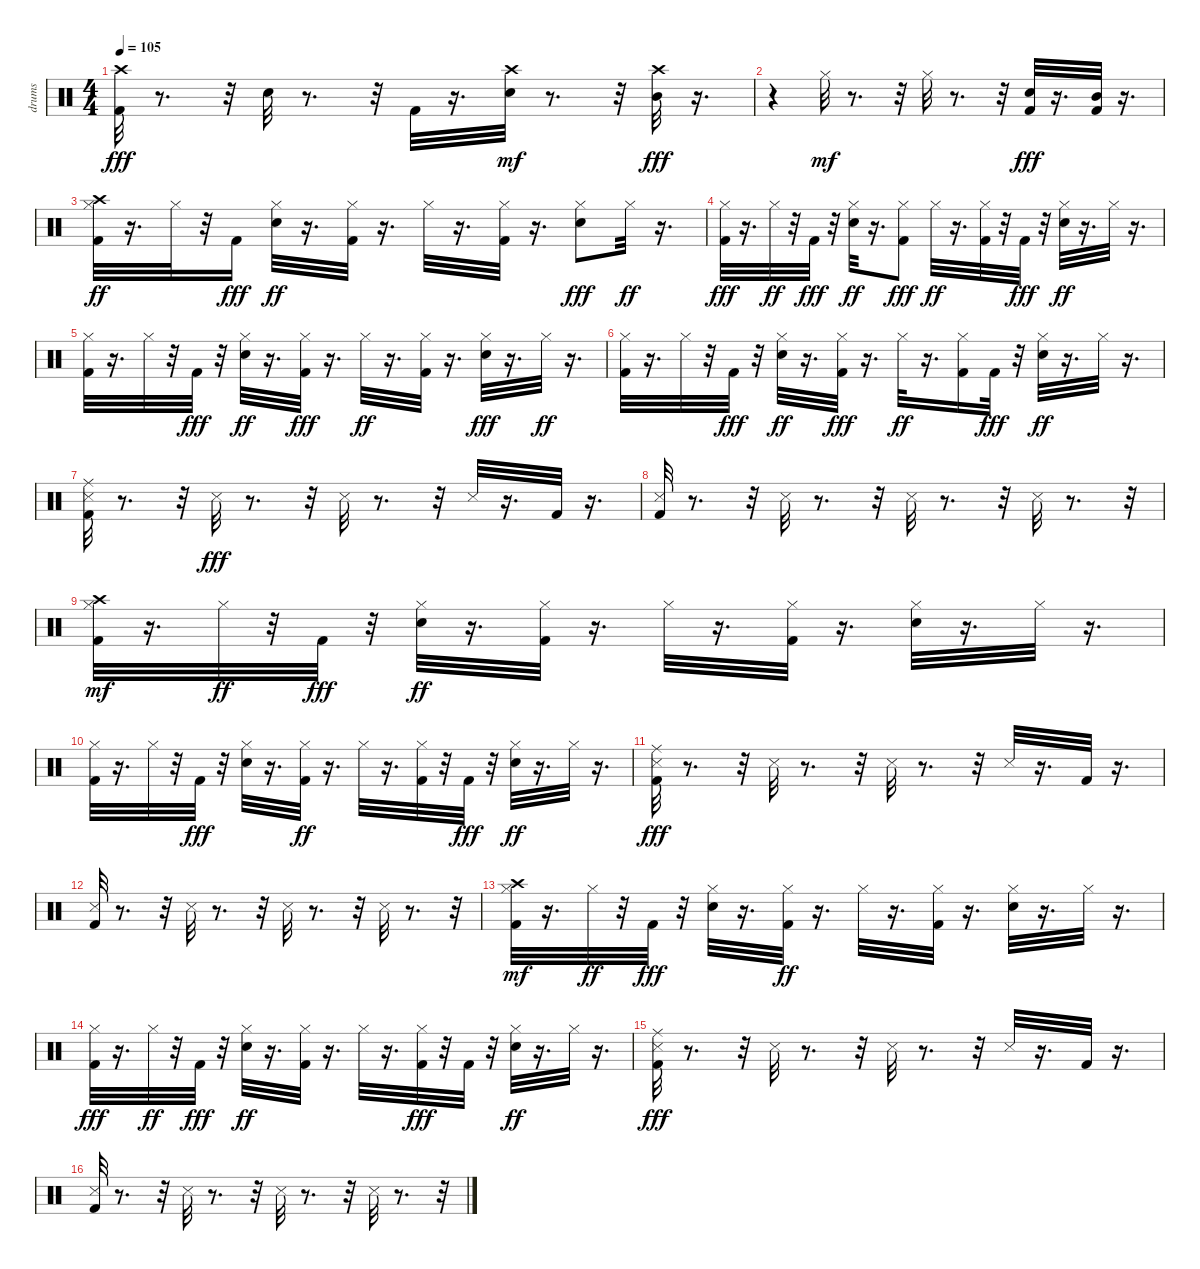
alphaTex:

\track ("drums" "drums") {instrument percussion}
\staff {score}
\articulation defaults
\ts (4 4)
\tempo 105
\clef neutral
\ks c
("Crash high (hit)" "Kick (hit) 2").32{dy fff} r.8{d} r.32 "Electric Snare (hit)".32 r.8{d} r.32 "Kick (hit) 2".32 r.16{d} ("Electric Snare (hit)" "Crash high (hit)").32{dy mf} r.8{d} r.32 ("Crash high (hit)" "Mid Tom (hit)").32{dy fff} r.16{d} |
r.4 "Hi-Hat (closed)".32{dy mf} r.8{d} r.32 "Hi-Hat (closed)".32 r.8{d} r.32 ("Electric Snare (hit)" "Kick (hit) 2").32{dy fff} r.16{d} ("Mid Tom (hit)" "Kick (hit) 2").32 r.16{d} |
("Kick (hit) 2" "Crash high (hit)" "Hi-Hat (closed)").32{dy ff} r.16{d} "Hi-Hat (closed)".32 r.32 "Kick (hit) 2".16{dy fff} ("Electric Snare (hit)" "Hi-Hat (closed)").32{dy ff} r.16{d} ("Kick (hit) 2" "Hi-Hat (closed)").32 r.16{d} "Hi-Hat (closed)".32 r.16{d} ("Kick (hit) 2" "Hi-Hat (closed)").32 r.16{d} ("Hi-Hat (closed)" "Electric Snare (hit)").8{dy fff} "Hi-Hat (closed)".32{dy ff} r.16{d} |
("Hi-Hat (closed)" "Kick (hit) 2").32{dy fff} r.16{d} "Hi-Hat (closed)".32{dy ff} r.32 "Kick (hit) 2".32{dy fff} r.32 ("Electric Snare (hit)" "Hi-Hat (closed)").32{dy ff} r.16{d} ("Hi-Hat (closed)" "Kick (hit) 2").8{dy fff} "Hi-Hat (closed)".32{dy ff} r.16{d} ("Kick (hit) 2" "Hi-Hat (closed)").32 r.32 "Kick (hit) 2".32{dy fff} r.32 ("Electric Snare (hit)" "Hi-Hat (closed)").32{dy ff} r.16{d} "Hi-Hat (closed)".32 r.16{d} |
("Kick (hit) 2" "Hi-Hat (closed)").32 r.16{d} "Hi-Hat (closed)".32 r.32 "Kick (hit) 2".32{dy fff} r.32 ("Electric Snare (hit)" "Hi-Hat (closed)").32{dy ff} r.16{d} ("Hi-Hat (closed)" "Kick (hit) 2").32{dy fff} r.16{d} "Hi-Hat (closed)".32{dy ff} r.16{d} ("Kick (hit) 2" "Hi-Hat (closed)").32 r.16{d} ("Hi-Hat (closed)" "Electric Snare (hit)").32{dy fff} r.16{d} "Hi-Hat (closed)".32{dy ff} r.16{d} |
("Kick (hit) 2" "Hi-Hat (closed)").32 r.16{d} "Hi-Hat (closed)".32 r.32 "Kick (hit) 2".32{dy fff} r.32 ("Electric Snare (hit)" "Hi-Hat (closed)").32{dy ff} r.16{d} ("Hi-Hat (closed)" "Kick (hit) 2").32{dy fff} r.16{d} "Hi-Hat (closed)".32{dy ff} r.16{d} ("Kick (hit) 2" "Hi-Hat (closed)").16 "Kick (hit) 2".32{dy fff} r.32 ("Electric Snare (hit)" "Hi-Hat (closed)").32{dy ff} r.16{d} "Hi-Hat (closed)".32 r.16{d} |
("Kick (hit) 2" "Snare (side stick) 3" "Ride (middle)").32 r.8{d} r.32 "Snare (side stick) 3".32{dy fff} r.8{d} r.32 "Snare (side stick) 3".32 r.8{d} r.32 "Snare (side stick) 3".32 r.16{d} "Kick (hit) 2".32 r.16{d} |
("Kick (hit) 2" "Snare (side stick) 3").32 r.8{d} r.32 "Snare (side stick) 3".32 r.8{d} r.32 "Snare (side stick) 3".32 r.8{d} r.32 "Snare (side stick) 3".32 r.8{d} r.32 |
("Kick (hit) 2" "Hi-Hat (closed)" "Crash high (hit)").32{dy mf} r.16{d} "Hi-Hat (closed)".32{dy ff} r.32 "Kick (hit) 2".32{dy fff} r.32 ("Electric Snare (hit)" "Hi-Hat (closed)").32{dy ff} r.16{d} ("Kick (hit) 2" "Hi-Hat (closed)").32 r.16{d} "Hi-Hat (closed)".32 r.16{d} ("Kick (hit) 2" "Hi-Hat (closed)").32 r.16{d} ("Electric Snare (hit)" "Hi-Hat (closed)").32 r.16{d} "Hi-Hat (closed)".32 r.16{d} |
("Kick (hit) 2" "Hi-Hat (closed)").32 r.16{d} "Hi-Hat (closed)".32 r.32 "Kick (hit) 2".32{dy fff} r.32 ("Hi-Hat (closed)" "Electric Snare (hit)").32 r.16{d} ("Kick (hit) 2" "Hi-Hat (closed)").32{dy ff} r.16{d} "Hi-Hat (closed)".32 r.16{d} ("Kick (hit) 2" "Hi-Hat (closed)").32 r.32 "Kick (hit) 2".32{dy fff} r.32 ("Electric Snare (hit)" "Hi-Hat (closed)").32{dy ff} r.16{d} "Hi-Hat (closed)".32 r.16{d} |
("Ride (middle)" "Kick (hit) 2" "Snare (side stick) 3").32{dy fff} r.8{d} r.32 "Snare (side stick) 3".32 r.8{d} r.32 "Snare (side stick) 3".32 r.8{d} r.32 "Snare (side stick) 3".32 r.16{d} "Kick (hit) 2".32 r.16{d} |
("Kick (hit) 2" "Snare (side stick) 3").32 r.8{d} r.32 "Snare (side stick) 3".32 r.8{d} r.32 "Snare (side stick) 3".32 r.8{d} r.32 "Snare (side stick) 3".32 r.8{d} r.32 |
("Kick (hit) 2" "Hi-Hat (closed)" "Crash high (hit)").32{dy mf} r.16{d} "Hi-Hat (closed)".32{dy ff} r.32 "Kick (hit) 2".32{dy fff} r.32 ("Hi-Hat (closed)" "Electric Snare (hit)").32 r.16{d} ("Kick (hit) 2" "Hi-Hat (closed)").32{dy ff} r.16{d} "Hi-Hat (closed)".32 r.16{d} ("Kick (hit) 2" "Hi-Hat (closed)").32 r.16{d} ("Electric Snare (hit)" "Hi-Hat (closed)").32 r.16{d} "Hi-Hat (closed)".32 r.16{d} |
("Hi-Hat (closed)" "Kick (hit) 2").32{dy fff} r.16{d} "Hi-Hat (closed)".32{dy ff} r.32 "Kick (hit) 2".32{dy fff} r.32 ("Electric Snare (hit)" "Hi-Hat (closed)").32{dy ff} r.16{d} ("Kick (hit) 2" "Hi-Hat (closed)").32 r.16{d} "Hi-Hat (closed)".32 r.16{d} ("Hi-Hat (closed)" "Kick (hit) 2").32{dy fff} r.32 "Kick (hit) 2".32 r.32 ("Electric Snare (hit)" "Hi-Hat (closed)").32{dy ff} r.16{d} "Hi-Hat (closed)".32 r.16{d} |
("Ride (middle)" "Kick (hit) 2" "Snare (side stick) 3").32{dy fff} r.8{d} r.32 "Snare (side stick) 3".32 r.8{d} r.32 "Snare (side stick) 3".32 r.8{d} r.32 "Snare (side stick) 3".32 r.16{d} "Kick (hit) 2".32 r.16{d} |
("Snare (side stick) 3" "Kick (hit) 2").32 r.8{d} r.32 "Snare (side stick) 3".32 r.8{d} r.32 "Snare (side stick) 3".32 r.8{d} r.32 "Snare (side stick) 3".32 r.8{d} r.32
